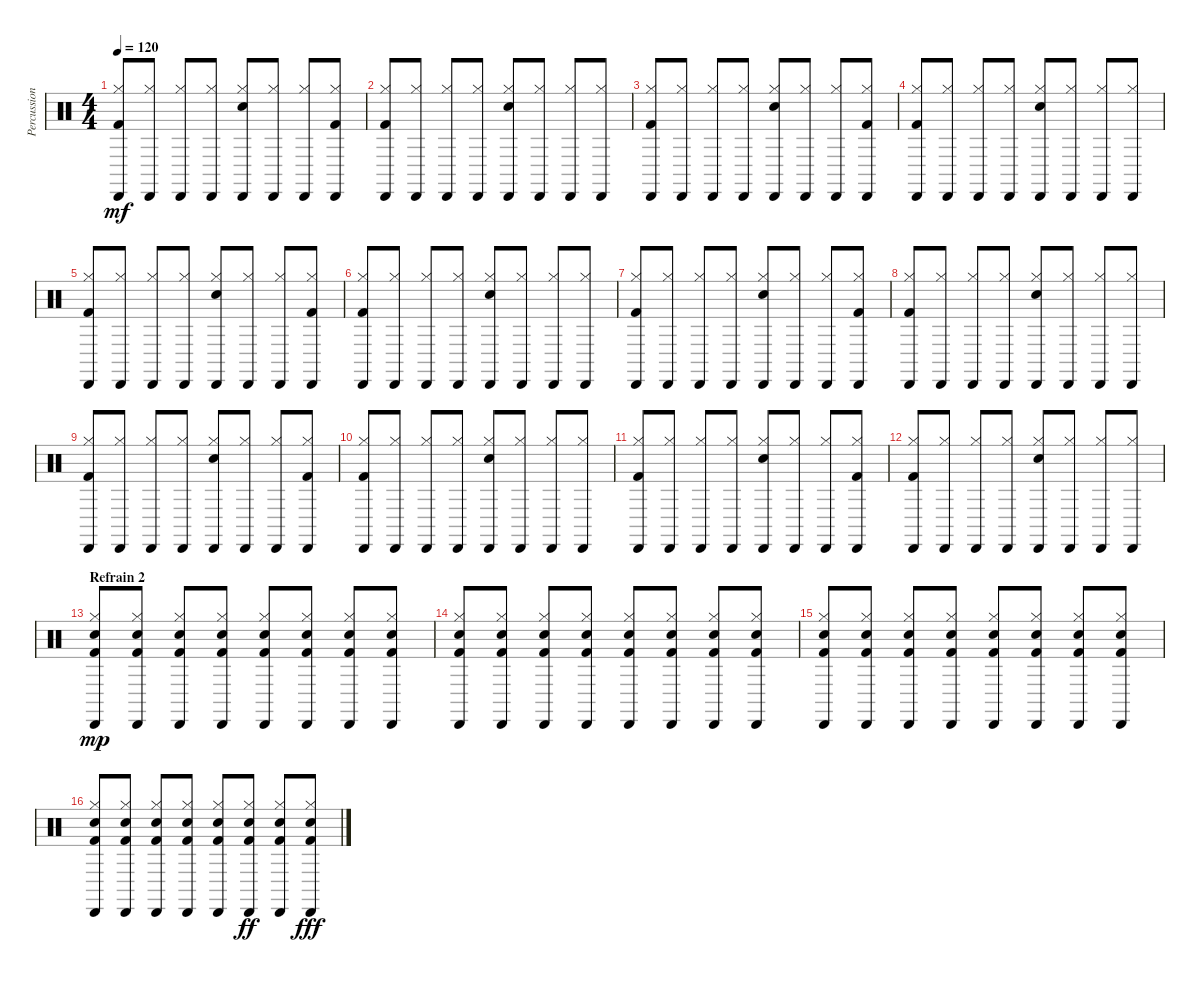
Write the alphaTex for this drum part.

\track ("Percussions" "Percussion") {instrument percussion}
\staff {score}
\articulation defaults
\ts (4 4)
\tempo 120
\clef neutral
\ks c
("Kick (hit) 2" "Cabasa (hit)" "Hi-Hat (closed)").8{dy mf} ("Cabasa (hit)" "Hi-Hat (closed)").8 ("Cabasa (hit)" "Hi-Hat (closed)").8 ("Cabasa (hit)" "Hi-Hat (closed)").8 ("Electric Snare (hit)" "Cabasa (hit)" "Hi-Hat (closed)").8 ("Cabasa (hit)" "Hi-Hat (closed)").8 ("Cabasa (hit)" "Hi-Hat (closed)").8 ("Kick (hit) 2" "Cabasa (hit)" "Hi-Hat (closed)").8 |
("Kick (hit) 2" "Cabasa (hit)" "Hi-Hat (closed)").8 ("Cabasa (hit)" "Hi-Hat (closed)").8 ("Cabasa (hit)" "Hi-Hat (closed)").8 ("Cabasa (hit)" "Hi-Hat (closed)").8 ("Electric Snare (hit)" "Cabasa (hit)" "Hi-Hat (closed)").8 ("Cabasa (hit)" "Hi-Hat (closed)").8 ("Cabasa (hit)" "Hi-Hat (closed)").8 ("Cabasa (hit)" "Hi-Hat (closed)").8 |
("Kick (hit) 2" "Cabasa (hit)" "Hi-Hat (closed)").8 ("Cabasa (hit)" "Hi-Hat (closed)").8 ("Cabasa (hit)" "Hi-Hat (closed)").8 ("Cabasa (hit)" "Hi-Hat (closed)").8 ("Electric Snare (hit)" "Cabasa (hit)" "Hi-Hat (closed)").8 ("Cabasa (hit)" "Hi-Hat (closed)").8 ("Cabasa (hit)" "Hi-Hat (closed)").8 ("Kick (hit) 2" "Cabasa (hit)" "Hi-Hat (closed)").8 |
("Kick (hit) 2" "Cabasa (hit)" "Hi-Hat (closed)").8 ("Cabasa (hit)" "Hi-Hat (closed)").8 ("Cabasa (hit)" "Hi-Hat (closed)").8 ("Cabasa (hit)" "Hi-Hat (closed)").8 ("Electric Snare (hit)" "Cabasa (hit)" "Hi-Hat (closed)").8 ("Cabasa (hit)" "Hi-Hat (closed)").8 ("Cabasa (hit)" "Hi-Hat (closed)").8 ("Cabasa (hit)" "Hi-Hat (closed)").8 |
("Kick (hit) 2" "Cabasa (hit)" "Hi-Hat (closed)").8 ("Cabasa (hit)" "Hi-Hat (closed)").8 ("Cabasa (hit)" "Hi-Hat (closed)").8 ("Cabasa (hit)" "Hi-Hat (closed)").8 ("Electric Snare (hit)" "Cabasa (hit)" "Hi-Hat (closed)").8 ("Cabasa (hit)" "Hi-Hat (closed)").8 ("Cabasa (hit)" "Hi-Hat (closed)").8 ("Kick (hit) 2" "Cabasa (hit)" "Hi-Hat (closed)").8 |
("Kick (hit) 2" "Cabasa (hit)" "Hi-Hat (closed)").8 ("Cabasa (hit)" "Hi-Hat (closed)").8 ("Cabasa (hit)" "Hi-Hat (closed)").8 ("Cabasa (hit)" "Hi-Hat (closed)").8 ("Electric Snare (hit)" "Cabasa (hit)" "Hi-Hat (closed)").8 ("Cabasa (hit)" "Hi-Hat (closed)").8 ("Cabasa (hit)" "Hi-Hat (closed)").8 ("Cabasa (hit)" "Hi-Hat (closed)").8 |
("Kick (hit) 2" "Cabasa (hit)" "Hi-Hat (closed)").8 ("Cabasa (hit)" "Hi-Hat (closed)").8 ("Cabasa (hit)" "Hi-Hat (closed)").8 ("Cabasa (hit)" "Hi-Hat (closed)").8 ("Electric Snare (hit)" "Cabasa (hit)" "Hi-Hat (closed)").8 ("Cabasa (hit)" "Hi-Hat (closed)").8 ("Cabasa (hit)" "Hi-Hat (closed)").8 ("Kick (hit) 2" "Cabasa (hit)" "Hi-Hat (closed)").8 |
("Kick (hit) 2" "Cabasa (hit)" "Hi-Hat (closed)").8 ("Cabasa (hit)" "Hi-Hat (closed)").8 ("Cabasa (hit)" "Hi-Hat (closed)").8 ("Cabasa (hit)" "Hi-Hat (closed)").8 ("Electric Snare (hit)" "Cabasa (hit)" "Hi-Hat (closed)").8 ("Cabasa (hit)" "Hi-Hat (closed)").8 ("Cabasa (hit)" "Hi-Hat (closed)").8 ("Cabasa (hit)" "Hi-Hat (closed)").8 |
("Kick (hit) 2" "Cabasa (hit)" "Hi-Hat (closed)").8 ("Cabasa (hit)" "Hi-Hat (closed)").8 ("Cabasa (hit)" "Hi-Hat (closed)").8 ("Cabasa (hit)" "Hi-Hat (closed)").8 ("Electric Snare (hit)" "Cabasa (hit)" "Hi-Hat (closed)").8 ("Cabasa (hit)" "Hi-Hat (closed)").8 ("Cabasa (hit)" "Hi-Hat (closed)").8 ("Kick (hit) 2" "Cabasa (hit)" "Hi-Hat (closed)").8 |
("Kick (hit) 2" "Cabasa (hit)" "Hi-Hat (closed)").8 ("Cabasa (hit)" "Hi-Hat (closed)").8 ("Cabasa (hit)" "Hi-Hat (closed)").8 ("Cabasa (hit)" "Hi-Hat (closed)").8 ("Electric Snare (hit)" "Cabasa (hit)" "Hi-Hat (closed)").8 ("Cabasa (hit)" "Hi-Hat (closed)").8 ("Cabasa (hit)" "Hi-Hat (closed)").8 ("Cabasa (hit)" "Hi-Hat (closed)").8 |
("Kick (hit) 2" "Cabasa (hit)" "Hi-Hat (closed)").8 ("Cabasa (hit)" "Hi-Hat (closed)").8 ("Cabasa (hit)" "Hi-Hat (closed)").8 ("Cabasa (hit)" "Hi-Hat (closed)").8 ("Electric Snare (hit)" "Cabasa (hit)" "Hi-Hat (closed)").8 ("Cabasa (hit)" "Hi-Hat (closed)").8 ("Cabasa (hit)" "Hi-Hat (closed)").8 ("Kick (hit) 2" "Cabasa (hit)" "Hi-Hat (closed)").8 |
("Kick (hit) 2" "Cabasa (hit)" "Hi-Hat (closed)").8 ("Cabasa (hit)" "Hi-Hat (closed)").8 ("Cabasa (hit)" "Hi-Hat (closed)").8 ("Cabasa (hit)" "Hi-Hat (closed)").8 ("Electric Snare (hit)" "Cabasa (hit)" "Hi-Hat (closed)").8 ("Cabasa (hit)" "Hi-Hat (closed)").8 ("Cabasa (hit)" "Hi-Hat (closed)").8 ("Cabasa (hit)" "Hi-Hat (closed)").8 |
\section ("" "Refrain 2")
("Electric Snare (hit)" "Cabasa (hit)" "Hi-Hat (closed)" "Kick (hit) 2").8{dy mp} ("Electric Snare (hit)" "Cabasa (hit)" "Hi-Hat (closed)" "Kick (hit) 2").8 ("Electric Snare (hit)" "Cabasa (hit)" "Hi-Hat (closed)" "Kick (hit) 2").8 ("Electric Snare (hit)" "Cabasa (hit)" "Hi-Hat (closed)" "Kick (hit) 2").8 ("Electric Snare (hit)" "Cabasa (hit)" "Hi-Hat (closed)" "Kick (hit) 2").8 ("Electric Snare (hit)" "Cabasa (hit)" "Hi-Hat (closed)" "Kick (hit) 2").8 ("Electric Snare (hit)" "Cabasa (hit)" "Hi-Hat (closed)" "Kick (hit) 2").8 ("Electric Snare (hit)" "Cabasa (hit)" "Hi-Hat (closed)" "Kick (hit) 2").8 |
("Electric Snare (hit)" "Cabasa (hit)" "Hi-Hat (closed)" "Kick (hit) 2").8 ("Electric Snare (hit)" "Cabasa (hit)" "Hi-Hat (closed)" "Kick (hit) 2").8 ("Electric Snare (hit)" "Cabasa (hit)" "Hi-Hat (closed)" "Kick (hit) 2").8 ("Electric Snare (hit)" "Cabasa (hit)" "Hi-Hat (closed)" "Kick (hit) 2").8 ("Electric Snare (hit)" "Cabasa (hit)" "Hi-Hat (closed)" "Kick (hit) 2").8 ("Electric Snare (hit)" "Cabasa (hit)" "Hi-Hat (closed)" "Kick (hit) 2").8 ("Electric Snare (hit)" "Cabasa (hit)" "Hi-Hat (closed)" "Kick (hit) 2").8 ("Electric Snare (hit)" "Cabasa (hit)" "Hi-Hat (closed)" "Kick (hit) 2").8 |
("Electric Snare (hit)" "Cabasa (hit)" "Hi-Hat (closed)" "Kick (hit) 2").8 ("Electric Snare (hit)" "Cabasa (hit)" "Hi-Hat (closed)" "Kick (hit) 2").8 ("Electric Snare (hit)" "Cabasa (hit)" "Hi-Hat (closed)" "Kick (hit) 2").8 ("Electric Snare (hit)" "Cabasa (hit)" "Hi-Hat (closed)" "Kick (hit) 2").8 ("Electric Snare (hit)" "Cabasa (hit)" "Hi-Hat (closed)" "Kick (hit) 2").8 ("Electric Snare (hit)" "Cabasa (hit)" "Hi-Hat (closed)" "Kick (hit) 2").8 ("Electric Snare (hit)" "Cabasa (hit)" "Hi-Hat (closed)" "Kick (hit) 2").8 ("Electric Snare (hit)" "Cabasa (hit)" "Hi-Hat (closed)" "Kick (hit) 2").8 |
("Electric Snare (hit)" "Cabasa (hit)" "Hi-Hat (closed)" "Kick (hit) 2").8 ("Electric Snare (hit)" "Cabasa (hit)" "Hi-Hat (closed)" "Kick (hit) 2").8 ("Electric Snare (hit)" "Cabasa (hit)" "Hi-Hat (closed)" "Kick (hit) 2").8 ("Electric Snare (hit)" "Cabasa (hit)" "Hi-Hat (closed)" "Kick (hit) 2").8 ("Electric Snare (hit)" "Cabasa (hit)" "Hi-Hat (closed)" "Kick (hit) 2").8 ("Electric Snare (hit)" "Cabasa (hit)" "Hi-Hat (closed)" "Kick (hit) 2").8{dy ff} ("Electric Snare (hit)" "Cabasa (hit)" "Hi-Hat (closed)" "Kick (hit) 2").8 ("Electric Snare (hit)" "Cabasa (hit)" "Hi-Hat (closed)" "Kick (hit) 2").8{dy fff}
